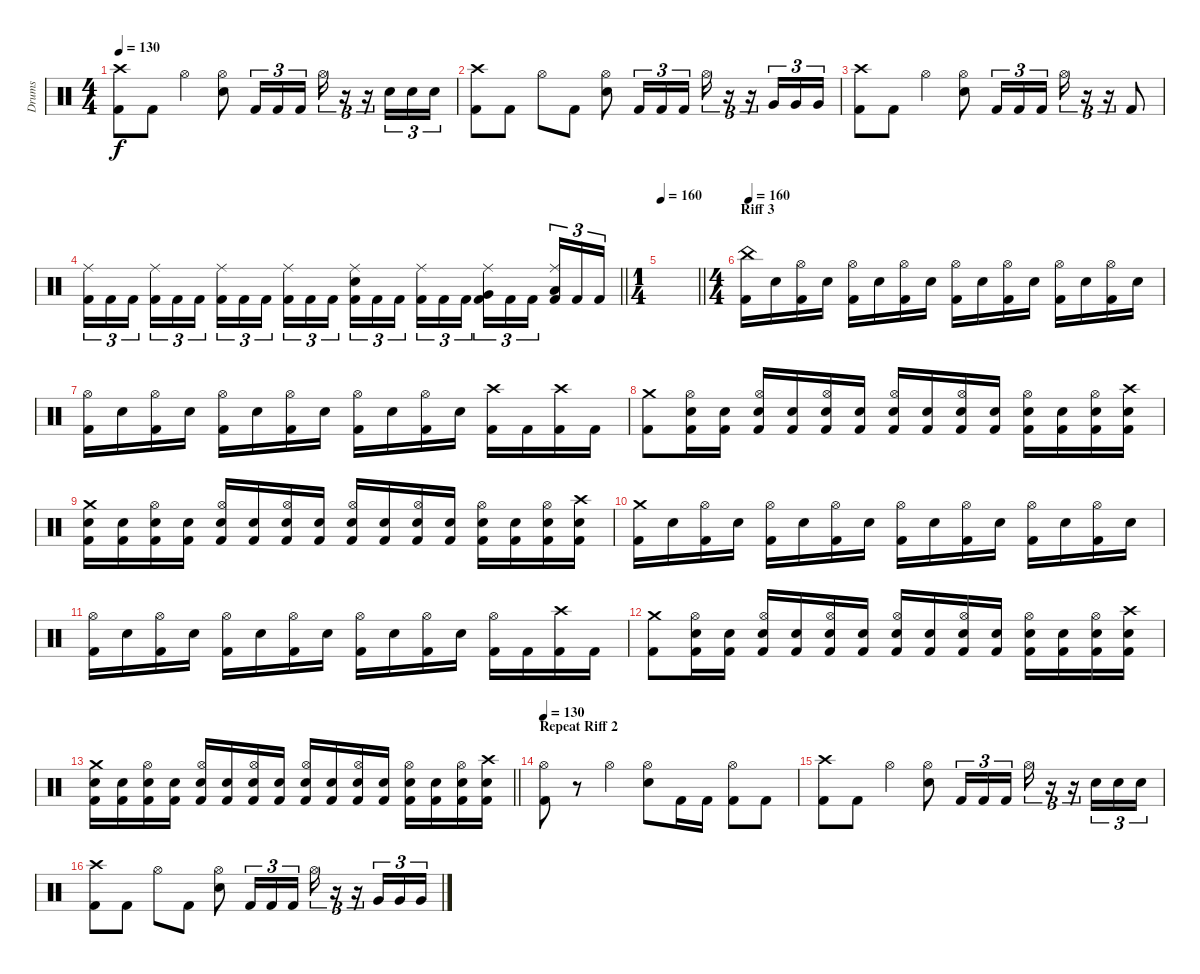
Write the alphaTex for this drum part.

\track ("Drums" "Drums") {instrument percussion}
\staff {score}
\articulation defaults
\ts (4 4)
\tempo 130
\clef neutral
\ks c
("Crash high (hit)" "Kick (hit) 2").8{dy f} "Kick (hit) 2".8 "Hi-Hat (open)".4 ("Hi-Hat (open)" "Snare (hit) 2").8 "Kick (hit) 2".16{tu (3 2)} "Kick (hit) 2".16{tu (3 2)} "Kick (hit) 2".16{tu (3 2)} "Hi-Hat (open)".16{tu (3 2)} r.16{tu (3 2)} r.16{tu (3 2)} "Snare (hit) 2".16{tu (3 2)} "Snare (hit) 2".16{tu (3 2)} "Snare (hit) 2".16{tu (3 2)} |
("Crash high (hit)" "Kick (hit) 2").8 "Kick (hit) 2".8 "Hi-Hat (open)".8 "Kick (hit) 2".8 ("Hi-Hat (open)" "Snare (hit) 2").8 "Kick (hit) 2".16{tu (3 2)} "Kick (hit) 2".16{tu (3 2)} "Kick (hit) 2".16{tu (3 2)} "Hi-Hat (open)".16{tu (3 2)} r.16{tu (3 2)} r.16{tu (3 2)} "Very Low Tom (hit)".16{tu (3 2)} "Very Low Tom (hit)".16{tu (3 2)} "Very Low Tom (hit)".16{tu (3 2)} |
("Crash high (hit)" "Kick (hit) 2").8 "Kick (hit) 2".8 "Hi-Hat (open)".4 ("Hi-Hat (open)" "Snare (hit) 2").8 "Kick (hit) 2".16{tu (3 2)} "Kick (hit) 2".16{tu (3 2)} "Kick (hit) 2".16{tu (3 2)} "Hi-Hat (open)".16{tu (3 2)} r.16{tu (3 2)} r.16{tu (3 2)} "Kick (hit) 2".8 |
\barLineRight lightlight
("Ride (middle)" "Kick (hit) 2").16{tu (3 2)} "Kick (hit) 2".16{tu (3 2)} "Kick (hit) 2".16{tu (3 2) beam splitsecondary} ("Ride (middle)" "Kick (hit) 2").16{tu (3 2)} "Kick (hit) 2".16{tu (3 2)} "Kick (hit) 2".16{tu (3 2)} ("Ride (middle)" "Kick (hit) 2").16{tu (3 2)} "Kick (hit) 2".16{tu (3 2)} "Kick (hit) 2".16{tu (3 2) beam splitsecondary} ("Ride (middle)" "Kick (hit) 2").16{tu (3 2)} "Kick (hit) 2".16{tu (3 2)} "Kick (hit) 2".16{tu (3 2)} ("Ride (middle)" "Snare (hit) 2" "Kick (hit) 2").16{tu (3 2)} "Kick (hit) 2".16{tu (3 2)} "Kick (hit) 2".16{tu (3 2) beam splitsecondary} ("Ride (middle)" "Kick (hit) 2").16{tu (3 2)} "Kick (hit) 2".16{tu (3 2)} "Kick (hit) 2".16{tu (3 2)} ("Ride (middle)" "Very Low Tom (hit)" "Kick (hit) 2").16{tu (3 2)} "Kick (hit) 2".16{tu (3 2)} "Kick (hit) 2".16{tu (3 2) beam splitsecondary} ("Ride (middle)" "Low Floor Tom (hit)" "Kick (hit) 2").16{tu (3 2)} "Kick (hit) 2".16{tu (3 2)} "Kick (hit) 2".16{tu (3 2)} |
\ts (1 4)
\tempo 160
\barLineRight lightlight
|
\ts (4 4)
\section ("" "Riff 3")
\tempo 160
("China (hit)" "Kick (hit) 2").16 "Snare (hit) 2".16 ("Hi-Hat (open)" "Kick (hit) 2").16 "Snare (hit) 2".16 ("Hi-Hat (open)" "Kick (hit) 2").16 "Snare (hit) 2".16 ("Hi-Hat (open)" "Kick (hit) 2").16 "Snare (hit) 2".16 ("Hi-Hat (open)" "Kick (hit) 2").16 "Snare (hit) 2".16 ("Hi-Hat (open)" "Kick (hit) 2").16 "Snare (hit) 2".16 ("Hi-Hat (open)" "Kick (hit) 2").16 "Snare (hit) 2".16 ("Hi-Hat (open)" "Kick (hit) 2").16 "Snare (hit) 2".16 |
("Hi-Hat (open)" "Kick (hit) 2").16 "Snare (hit) 2".16 ("Hi-Hat (open)" "Kick (hit) 2").16 "Snare (hit) 2".16 ("Hi-Hat (open)" "Kick (hit) 2").16 "Snare (hit) 2".16 ("Hi-Hat (open)" "Kick (hit) 2").16 "Snare (hit) 2".16 ("Hi-Hat (open)" "Kick (hit) 2").16 "Snare (hit) 2".16 ("Hi-Hat (open)" "Kick (hit) 2").16 "Snare (hit) 2".16 ("Crash high (hit)" "Kick (hit) 2").16 "Kick (hit) 2".16 ("Crash high (hit)" "Kick (hit) 2").16 "Kick (hit) 2".16 |
("Crash medium (hit)" "Kick (hit) 2").8 ("Hi-Hat (open)" "Snare (hit) 2" "Kick (hit) 2").16 ("Snare (hit) 2" "Kick (hit) 2").16 ("Hi-Hat (open)" "Snare (hit) 2" "Kick (hit) 2").16 ("Snare (hit) 2" "Kick (hit) 2").16 ("Hi-Hat (open)" "Snare (hit) 2" "Kick (hit) 2").16 ("Snare (hit) 2" "Kick (hit) 2").16 ("Hi-Hat (open)" "Snare (hit) 2" "Kick (hit) 2").16 ("Snare (hit) 2" "Kick (hit) 2").16 ("Hi-Hat (open)" "Snare (hit) 2" "Kick (hit) 2").16 ("Snare (hit) 2" "Kick (hit) 2").16 ("Hi-Hat (open)" "Snare (hit) 2" "Kick (hit) 2").16 ("Snare (hit) 2" "Kick (hit) 2").16 ("Hi-Hat (open)" "Snare (hit) 2" "Kick (hit) 2").16 ("Crash high (hit)" "Snare (hit) 2" "Kick (hit) 2").16 |
("Crash medium (hit)" "Snare (hit) 2" "Kick (hit) 2").16 ("Snare (hit) 2" "Kick (hit) 2").16 ("Hi-Hat (open)" "Snare (hit) 2" "Kick (hit) 2").16 ("Snare (hit) 2" "Kick (hit) 2").16 ("Hi-Hat (open)" "Snare (hit) 2" "Kick (hit) 2").16 ("Snare (hit) 2" "Kick (hit) 2").16 ("Hi-Hat (open)" "Snare (hit) 2" "Kick (hit) 2").16 ("Snare (hit) 2" "Kick (hit) 2").16 ("Hi-Hat (open)" "Snare (hit) 2" "Kick (hit) 2").16 ("Snare (hit) 2" "Kick (hit) 2").16 ("Hi-Hat (open)" "Snare (hit) 2" "Kick (hit) 2").16 ("Snare (hit) 2" "Kick (hit) 2").16 ("Hi-Hat (open)" "Snare (hit) 2" "Kick (hit) 2").16 ("Snare (hit) 2" "Kick (hit) 2").16 ("Hi-Hat (open)" "Snare (hit) 2" "Kick (hit) 2").16 ("Crash high (hit)" "Snare (hit) 2" "Kick (hit) 2").16 |
("Crash medium (hit)" "Kick (hit) 2").16 "Snare (hit) 2".16 ("Hi-Hat (open)" "Kick (hit) 2").16 "Snare (hit) 2".16 ("Hi-Hat (open)" "Kick (hit) 2").16 "Snare (hit) 2".16 ("Hi-Hat (open)" "Kick (hit) 2").16 "Snare (hit) 2".16 ("Hi-Hat (open)" "Kick (hit) 2").16 "Snare (hit) 2".16 ("Hi-Hat (open)" "Kick (hit) 2").16 "Snare (hit) 2".16 ("Hi-Hat (open)" "Kick (hit) 2").16 "Snare (hit) 2".16 ("Hi-Hat (open)" "Kick (hit) 2").16 "Snare (hit) 2".16 |
("Hi-Hat (open)" "Kick (hit) 2").16 "Snare (hit) 2".16 ("Hi-Hat (open)" "Kick (hit) 2").16 "Snare (hit) 2".16 ("Hi-Hat (open)" "Kick (hit) 2").16 "Snare (hit) 2".16 ("Hi-Hat (open)" "Kick (hit) 2").16 "Snare (hit) 2".16 ("Hi-Hat (open)" "Kick (hit) 2").16 "Snare (hit) 2".16 ("Hi-Hat (open)" "Kick (hit) 2").16 "Snare (hit) 2".16 ("Hi-Hat (open)" "Kick (hit) 2").16 "Kick (hit) 2".16 ("Crash high (hit)" "Kick (hit) 2").16 "Kick (hit) 2".16 |
("Crash medium (hit)" "Kick (hit) 2").8 ("Hi-Hat (open)" "Snare (hit) 2" "Kick (hit) 2").16 ("Snare (hit) 2" "Kick (hit) 2").16 ("Hi-Hat (open)" "Snare (hit) 2" "Kick (hit) 2").16 ("Snare (hit) 2" "Kick (hit) 2").16 ("Hi-Hat (open)" "Snare (hit) 2" "Kick (hit) 2").16 ("Snare (hit) 2" "Kick (hit) 2").16 ("Hi-Hat (open)" "Snare (hit) 2" "Kick (hit) 2").16 ("Snare (hit) 2" "Kick (hit) 2").16 ("Hi-Hat (open)" "Snare (hit) 2" "Kick (hit) 2").16 ("Snare (hit) 2" "Kick (hit) 2").16 ("Hi-Hat (open)" "Snare (hit) 2" "Kick (hit) 2").16 ("Snare (hit) 2" "Kick (hit) 2").16 ("Hi-Hat (open)" "Snare (hit) 2" "Kick (hit) 2").16 ("Crash high (hit)" "Snare (hit) 2" "Kick (hit) 2").16 |
\barLineRight lightlight
("Crash medium (hit)" "Snare (hit) 2" "Kick (hit) 2").16 ("Snare (hit) 2" "Kick (hit) 2").16 ("Hi-Hat (open)" "Snare (hit) 2" "Kick (hit) 2").16 ("Snare (hit) 2" "Kick (hit) 2").16 ("Hi-Hat (open)" "Snare (hit) 2" "Kick (hit) 2").16 ("Snare (hit) 2" "Kick (hit) 2").16 ("Hi-Hat (open)" "Snare (hit) 2" "Kick (hit) 2").16 ("Snare (hit) 2" "Kick (hit) 2").16 ("Hi-Hat (open)" "Snare (hit) 2" "Kick (hit) 2").16 ("Snare (hit) 2" "Kick (hit) 2").16 ("Hi-Hat (open)" "Snare (hit) 2" "Kick (hit) 2").16 ("Snare (hit) 2" "Kick (hit) 2").16 ("Hi-Hat (open)" "Snare (hit) 2" "Kick (hit) 2").16 ("Snare (hit) 2" "Kick (hit) 2").16 ("Hi-Hat (open)" "Snare (hit) 2" "Kick (hit) 2").16 ("Crash high (hit)" "Snare (hit) 2" "Kick (hit) 2").16 |
\section ("" "Repeat Riff 2")
\tempo 130
("Hi-Hat (open)" "Kick (hit) 2").8 r.8 "Hi-Hat (open)".4 ("Hi-Hat (open)" "Snare (hit) 2").8 "Kick (hit) 2".16 "Kick (hit) 2".16 ("Hi-Hat (open)" "Kick (hit) 2").8 "Kick (hit) 2".8 |
("Crash high (hit)" "Kick (hit) 2").8 "Kick (hit) 2".8 "Hi-Hat (open)".4 ("Hi-Hat (open)" "Snare (hit) 2").8 "Kick (hit) 2".16{tu (3 2)} "Kick (hit) 2".16{tu (3 2)} "Kick (hit) 2".16{tu (3 2)} "Hi-Hat (open)".16{tu (3 2)} r.16{tu (3 2)} r.16{tu (3 2)} "Snare (hit) 2".16{tu (3 2)} "Snare (hit) 2".16{tu (3 2)} "Snare (hit) 2".16{tu (3 2)} |
("Crash high (hit)" "Kick (hit) 2").8 "Kick (hit) 2".8 "Hi-Hat (open)".8 "Kick (hit) 2".8 ("Hi-Hat (open)" "Snare (hit) 2").8 "Kick (hit) 2".16{tu (3 2)} "Kick (hit) 2".16{tu (3 2)} "Kick (hit) 2".16{tu (3 2)} "Hi-Hat (open)".16{tu (3 2)} r.16{tu (3 2)} r.16{tu (3 2)} "Very Low Tom (hit)".16{tu (3 2)} "Very Low Tom (hit)".16{tu (3 2)} "Very Low Tom (hit)".16{tu (3 2)}
